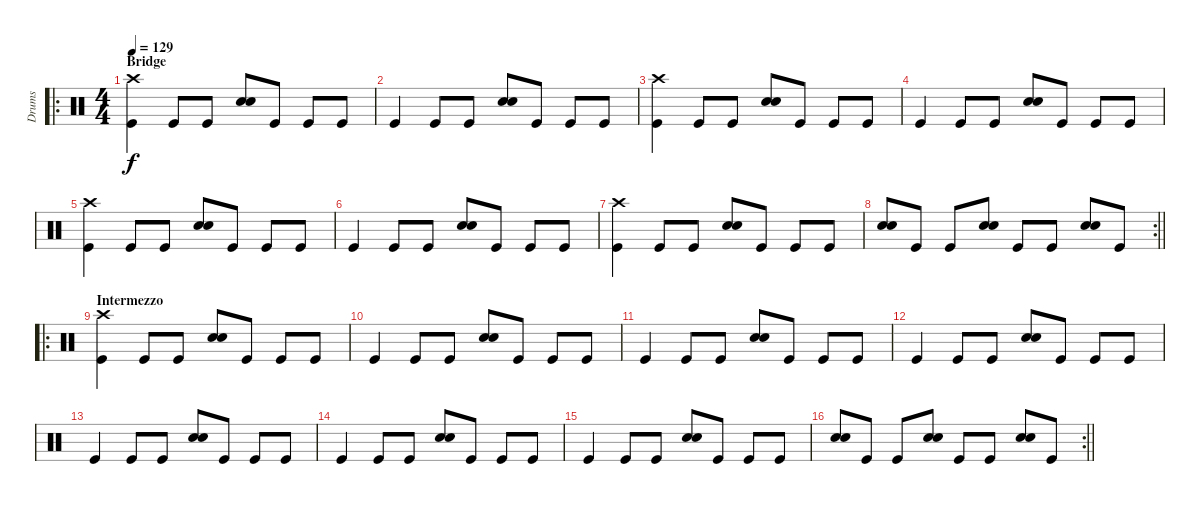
\track ("Drums" "Drums") {instrument percussion}
\staff {score}
\articulation defaults
\ro
\ts (4 4)
\section ("" "Bridge")
\tempo 129
\clef neutral
\ks c
("Crash high (hit)" "Kick (hit)").4{dy f} "Kick (hit)".8 "Kick (hit)".8 ("Snare (hit) 2" "Electric Snare (hit)").8 "Kick (hit)".8 "Kick (hit)".8 "Kick (hit)".8 |
"Kick (hit)".4 "Kick (hit)".8 "Kick (hit)".8 ("Snare (hit) 2" "Electric Snare (hit)").8 "Kick (hit)".8 "Kick (hit)".8 "Kick (hit)".8 |
("Crash high (hit)" "Kick (hit)").4 "Kick (hit)".8 "Kick (hit)".8 ("Snare (hit) 2" "Electric Snare (hit)").8 "Kick (hit)".8 "Kick (hit)".8 "Kick (hit)".8 |
"Kick (hit)".4 "Kick (hit)".8 "Kick (hit)".8 ("Snare (hit) 2" "Electric Snare (hit)").8 "Kick (hit)".8 "Kick (hit)".8 "Kick (hit)".8 |
("Crash high (hit)" "Kick (hit)").4 "Kick (hit)".8 "Kick (hit)".8 ("Snare (hit) 2" "Electric Snare (hit)").8 "Kick (hit)".8 "Kick (hit)".8 "Kick (hit)".8 |
"Kick (hit)".4 "Kick (hit)".8 "Kick (hit)".8 ("Snare (hit) 2" "Electric Snare (hit)").8 "Kick (hit)".8 "Kick (hit)".8 "Kick (hit)".8 |
("Crash high (hit)" "Kick (hit)").4 "Kick (hit)".8 "Kick (hit)".8 ("Snare (hit) 2" "Electric Snare (hit)").8 "Kick (hit)".8 "Kick (hit)".8 "Kick (hit)".8 |
\rc 2
\barLineRight lightlight
("Snare (hit) 2" "Electric Snare (hit)").8 "Kick (hit)".8 "Kick (hit)".8 ("Snare (hit) 2" "Electric Snare (hit)").8 "Kick (hit)".8 "Kick (hit)".8 ("Snare (hit) 2" "Electric Snare (hit)").8 "Kick (hit)".8 |
\ro
\section ("" "Intermezzo")
("Crash high (hit)" "Kick (hit)").4 "Kick (hit)".8 "Kick (hit)".8 ("Snare (hit) 2" "Electric Snare (hit)").8 "Kick (hit)".8 "Kick (hit)".8 "Kick (hit)".8 |
"Kick (hit)".4 "Kick (hit)".8 "Kick (hit)".8 ("Snare (hit) 2" "Electric Snare (hit)").8 "Kick (hit)".8 "Kick (hit)".8 "Kick (hit)".8 |
"Kick (hit)".4 "Kick (hit)".8 "Kick (hit)".8 ("Snare (hit) 2" "Electric Snare (hit)").8 "Kick (hit)".8 "Kick (hit)".8 "Kick (hit)".8 |
"Kick (hit)".4 "Kick (hit)".8 "Kick (hit)".8 ("Snare (hit) 2" "Electric Snare (hit)").8 "Kick (hit)".8 "Kick (hit)".8 "Kick (hit)".8 |
"Kick (hit)".4 "Kick (hit)".8 "Kick (hit)".8 ("Snare (hit) 2" "Electric Snare (hit)").8 "Kick (hit)".8 "Kick (hit)".8 "Kick (hit)".8 |
"Kick (hit)".4 "Kick (hit)".8 "Kick (hit)".8 ("Snare (hit) 2" "Electric Snare (hit)").8 "Kick (hit)".8 "Kick (hit)".8 "Kick (hit)".8 |
"Kick (hit)".4 "Kick (hit)".8 "Kick (hit)".8 ("Snare (hit) 2" "Electric Snare (hit)").8 "Kick (hit)".8 "Kick (hit)".8 "Kick (hit)".8 |
\rc 2
\barLineRight lightlight
("Snare (hit) 2" "Electric Snare (hit)").8 "Kick (hit)".8 "Kick (hit)".8 ("Snare (hit) 2" "Electric Snare (hit)").8 "Kick (hit)".8 "Kick (hit)".8 ("Snare (hit) 2" "Electric Snare (hit)").8 "Kick (hit)".8
